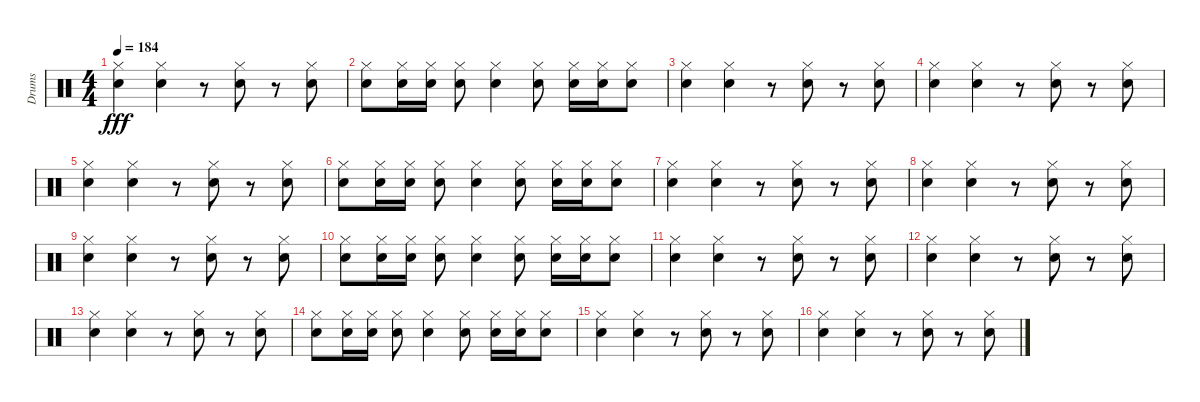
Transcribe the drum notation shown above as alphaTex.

\track ("Drums" "Drums") {instrument percussion}
\staff {score}
\articulation defaults
\ts (4 4)
\tempo 184
\clef neutral
\ks c
("Hi-Hat (closed)" "Snare (hit) 2").4{dy fff} ("Hi-Hat (closed)" "Snare (hit) 2").4 r.8 ("Hi-Hat (closed)" "Snare (hit) 2").8 r.8 ("Hi-Hat (closed)" "Snare (hit) 2").8 |
("Hi-Hat (closed)" "Snare (hit) 2").8 ("Hi-Hat (closed)" "Snare (hit) 2").16 ("Hi-Hat (closed)" "Snare (hit) 2").16 ("Hi-Hat (closed)" "Snare (hit) 2").8 ("Hi-Hat (closed)" "Snare (hit) 2").4 ("Hi-Hat (closed)" "Snare (hit) 2").8 ("Hi-Hat (closed)" "Snare (hit) 2").16 ("Hi-Hat (closed)" "Snare (hit) 2").16 ("Hi-Hat (closed)" "Snare (hit) 2").8 |
("Hi-Hat (closed)" "Snare (hit) 2").4 ("Hi-Hat (closed)" "Snare (hit) 2").4 r.8 ("Hi-Hat (closed)" "Snare (hit) 2").8 r.8 ("Hi-Hat (closed)" "Snare (hit) 2").8 |
("Hi-Hat (closed)" "Snare (hit) 2").4 ("Hi-Hat (closed)" "Snare (hit) 2").4 r.8 ("Hi-Hat (closed)" "Snare (hit) 2").8 r.8 ("Hi-Hat (closed)" "Snare (hit) 2").8 |
("Hi-Hat (closed)" "Snare (hit) 2").4 ("Hi-Hat (closed)" "Snare (hit) 2").4 r.8 ("Hi-Hat (closed)" "Snare (hit) 2").8 r.8 ("Hi-Hat (closed)" "Snare (hit) 2").8 |
("Hi-Hat (closed)" "Snare (hit) 2").8 ("Hi-Hat (closed)" "Snare (hit) 2").16 ("Hi-Hat (closed)" "Snare (hit) 2").16 ("Hi-Hat (closed)" "Snare (hit) 2").8 ("Hi-Hat (closed)" "Snare (hit) 2").4 ("Hi-Hat (closed)" "Snare (hit) 2").8 ("Hi-Hat (closed)" "Snare (hit) 2").16 ("Hi-Hat (closed)" "Snare (hit) 2").16 ("Hi-Hat (closed)" "Snare (hit) 2").8 |
("Hi-Hat (closed)" "Snare (hit) 2").4 ("Hi-Hat (closed)" "Snare (hit) 2").4 r.8 ("Hi-Hat (closed)" "Snare (hit) 2").8 r.8 ("Hi-Hat (closed)" "Snare (hit) 2").8 |
("Hi-Hat (closed)" "Snare (hit) 2").4 ("Hi-Hat (closed)" "Snare (hit) 2").4 r.8 ("Hi-Hat (closed)" "Snare (hit) 2").8 r.8 ("Hi-Hat (closed)" "Snare (hit) 2").8 |
("Hi-Hat (closed)" "Snare (hit) 2").4 ("Hi-Hat (closed)" "Snare (hit) 2").4 r.8 ("Hi-Hat (closed)" "Snare (hit) 2").8 r.8 ("Hi-Hat (closed)" "Snare (hit) 2").8 |
("Hi-Hat (closed)" "Snare (hit) 2").8 ("Hi-Hat (closed)" "Snare (hit) 2").16 ("Hi-Hat (closed)" "Snare (hit) 2").16 ("Hi-Hat (closed)" "Snare (hit) 2").8 ("Hi-Hat (closed)" "Snare (hit) 2").4 ("Hi-Hat (closed)" "Snare (hit) 2").8 ("Hi-Hat (closed)" "Snare (hit) 2").16 ("Hi-Hat (closed)" "Snare (hit) 2").16 ("Hi-Hat (closed)" "Snare (hit) 2").8 |
("Hi-Hat (closed)" "Snare (hit) 2").4 ("Hi-Hat (closed)" "Snare (hit) 2").4 r.8 ("Hi-Hat (closed)" "Snare (hit) 2").8 r.8 ("Hi-Hat (closed)" "Snare (hit) 2").8 |
("Hi-Hat (closed)" "Snare (hit) 2").4 ("Hi-Hat (closed)" "Snare (hit) 2").4 r.8 ("Hi-Hat (closed)" "Snare (hit) 2").8 r.8 ("Hi-Hat (closed)" "Snare (hit) 2").8 |
("Hi-Hat (closed)" "Snare (hit) 2").4 ("Hi-Hat (closed)" "Snare (hit) 2").4 r.8 ("Hi-Hat (closed)" "Snare (hit) 2").8 r.8 ("Hi-Hat (closed)" "Snare (hit) 2").8 |
("Hi-Hat (closed)" "Snare (hit) 2").8 ("Hi-Hat (closed)" "Snare (hit) 2").16 ("Hi-Hat (closed)" "Snare (hit) 2").16 ("Hi-Hat (closed)" "Snare (hit) 2").8 ("Hi-Hat (closed)" "Snare (hit) 2").4 ("Hi-Hat (closed)" "Snare (hit) 2").8 ("Hi-Hat (closed)" "Snare (hit) 2").16 ("Hi-Hat (closed)" "Snare (hit) 2").16 ("Hi-Hat (closed)" "Snare (hit) 2").8 |
("Hi-Hat (closed)" "Snare (hit) 2").4 ("Hi-Hat (closed)" "Snare (hit) 2").4 r.8 ("Hi-Hat (closed)" "Snare (hit) 2").8 r.8 ("Hi-Hat (closed)" "Snare (hit) 2").8 |
("Hi-Hat (closed)" "Snare (hit) 2").4 ("Hi-Hat (closed)" "Snare (hit) 2").4 r.8 ("Hi-Hat (closed)" "Snare (hit) 2").8 r.8 ("Hi-Hat (closed)" "Snare (hit) 2").8
